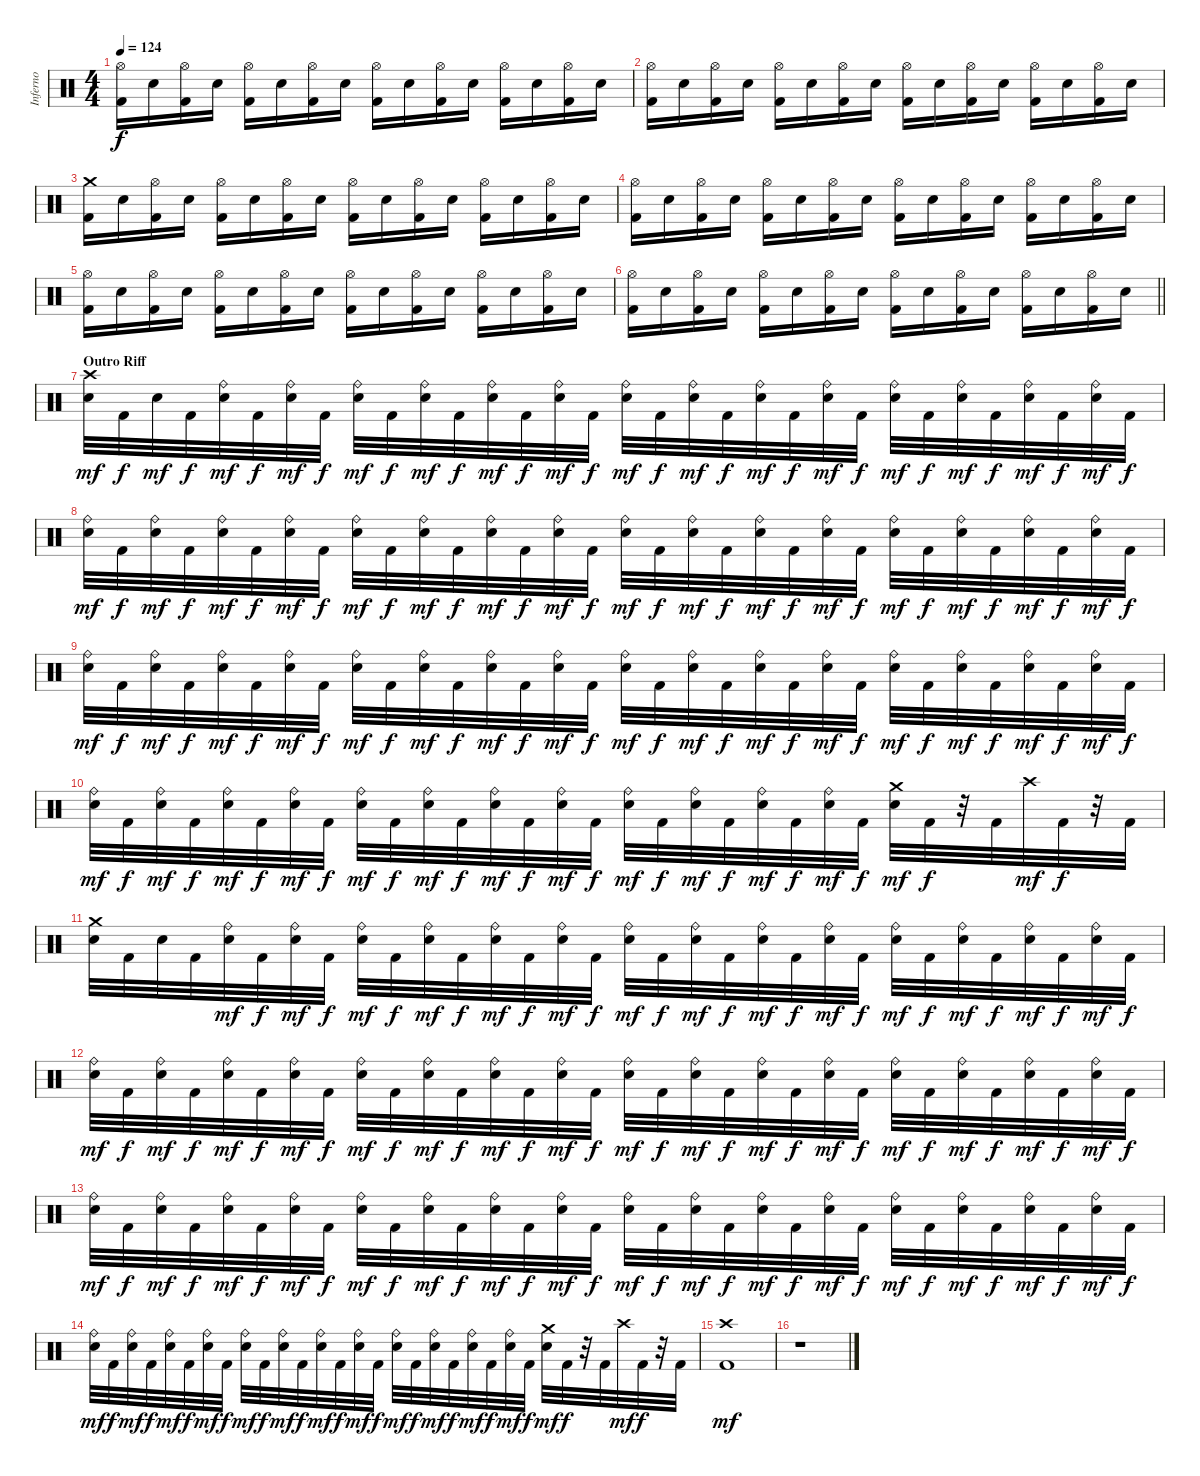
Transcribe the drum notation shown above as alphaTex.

\track ("Inferno" "Inferno") {instrument percussion}
\staff {score}
\articulation defaults
\ts (4 4)
\tempo 124
\clef neutral
\ks c
("Hi-Hat (open)" "Kick (hit) 2").16{dy f} "Snare (hit) 2".16 ("Hi-Hat (open)" "Kick (hit) 2").16 "Snare (hit) 2".16 ("Hi-Hat (open)" "Kick (hit) 2").16 "Snare (hit) 2".16 ("Hi-Hat (open)" "Kick (hit) 2").16 "Snare (hit) 2".16 ("Hi-Hat (open)" "Kick (hit) 2").16 "Snare (hit) 2".16 ("Hi-Hat (open)" "Kick (hit) 2").16 "Snare (hit) 2".16 ("Hi-Hat (open)" "Kick (hit) 2").16 "Snare (hit) 2".16 ("Hi-Hat (open)" "Kick (hit) 2").16 "Snare (hit) 2".16 |
("Hi-Hat (open)" "Kick (hit) 2").16 "Snare (hit) 2".16 ("Hi-Hat (open)" "Kick (hit) 2").16 "Snare (hit) 2".16 ("Hi-Hat (open)" "Kick (hit) 2").16 "Snare (hit) 2".16 ("Hi-Hat (open)" "Kick (hit) 2").16 "Snare (hit) 2".16 ("Hi-Hat (open)" "Kick (hit) 2").16 "Snare (hit) 2".16 ("Hi-Hat (open)" "Kick (hit) 2").16 "Snare (hit) 2".16 ("Hi-Hat (open)" "Kick (hit) 2").16 "Snare (hit) 2".16 ("Hi-Hat (open)" "Kick (hit) 2").16 "Snare (hit) 2".16 |
("Crash medium (hit)" "Kick (hit) 2").16 "Snare (hit) 2".16 ("Hi-Hat (open)" "Kick (hit) 2").16 "Snare (hit) 2".16 ("Hi-Hat (open)" "Kick (hit) 2").16 "Snare (hit) 2".16 ("Hi-Hat (open)" "Kick (hit) 2").16 "Snare (hit) 2".16 ("Hi-Hat (open)" "Kick (hit) 2").16 "Snare (hit) 2".16 ("Hi-Hat (open)" "Kick (hit) 2").16 "Snare (hit) 2".16 ("Hi-Hat (open)" "Kick (hit) 2").16 "Snare (hit) 2".16 ("Hi-Hat (open)" "Kick (hit) 2").16 "Snare (hit) 2".16 |
("Hi-Hat (open)" "Kick (hit) 2").16 "Snare (hit) 2".16 ("Hi-Hat (open)" "Kick (hit) 2").16 "Snare (hit) 2".16 ("Hi-Hat (open)" "Kick (hit) 2").16 "Snare (hit) 2".16 ("Hi-Hat (open)" "Kick (hit) 2").16 "Snare (hit) 2".16 ("Hi-Hat (open)" "Kick (hit) 2").16 "Snare (hit) 2".16 ("Hi-Hat (open)" "Kick (hit) 2").16 "Snare (hit) 2".16 ("Hi-Hat (open)" "Kick (hit) 2").16 "Snare (hit) 2".16 ("Hi-Hat (open)" "Kick (hit) 2").16 "Snare (hit) 2".16 |
("Hi-Hat (open)" "Kick (hit) 2").16 "Snare (hit) 2".16 ("Hi-Hat (open)" "Kick (hit) 2").16 "Snare (hit) 2".16 ("Hi-Hat (open)" "Kick (hit) 2").16 "Snare (hit) 2".16 ("Hi-Hat (open)" "Kick (hit) 2").16 "Snare (hit) 2".16 ("Hi-Hat (open)" "Kick (hit) 2").16 "Snare (hit) 2".16 ("Hi-Hat (open)" "Kick (hit) 2").16 "Snare (hit) 2".16 ("Hi-Hat (open)" "Kick (hit) 2").16 "Snare (hit) 2".16 ("Hi-Hat (open)" "Kick (hit) 2").16 "Snare (hit) 2".16 |
\barLineRight lightlight
("Hi-Hat (open)" "Kick (hit) 2").16 "Snare (hit) 2".16 ("Hi-Hat (open)" "Kick (hit) 2").16 "Snare (hit) 2".16 ("Hi-Hat (open)" "Kick (hit) 2").16 "Snare (hit) 2".16 ("Hi-Hat (open)" "Kick (hit) 2").16 "Snare (hit) 2".16 ("Hi-Hat (open)" "Kick (hit) 2").16 "Snare (hit) 2".16 ("Hi-Hat (open)" "Kick (hit) 2").16 "Snare (hit) 2".16 ("Hi-Hat (open)" "Kick (hit) 2").16 "Snare (hit) 2".16 ("Hi-Hat (open)" "Kick (hit) 2").16 "Snare (hit) 2".16 |
\section ("" "Outro Riff")
("Crash high (hit)" "Snare (hit) 2").32{dy mf} "Kick (hit) 2".32{dy f} "Snare (hit) 2".32{dy mf} "Kick (hit) 2".32{dy f} ("Ride (bell)" "Snare (hit) 2").32{dy mf} "Kick (hit) 2".32{dy f} ("Ride (bell)" "Snare (hit) 2").32{dy mf} "Kick (hit) 2".32{dy f} ("Ride (bell)" "Snare (hit) 2").32{dy mf} "Kick (hit) 2".32{dy f} ("Ride (bell)" "Snare (hit) 2").32{dy mf} "Kick (hit) 2".32{dy f} ("Ride (bell)" "Snare (hit) 2").32{dy mf} "Kick (hit) 2".32{dy f} ("Ride (bell)" "Snare (hit) 2").32{dy mf} "Kick (hit) 2".32{dy f} ("Ride (bell)" "Snare (hit) 2").32{dy mf} "Kick (hit) 2".32{dy f} ("Ride (bell)" "Snare (hit) 2").32{dy mf} "Kick (hit) 2".32{dy f} ("Ride (bell)" "Snare (hit) 2").32{dy mf} "Kick (hit) 2".32{dy f} ("Ride (bell)" "Snare (hit) 2").32{dy mf} "Kick (hit) 2".32{dy f} ("Ride (bell)" "Snare (hit) 2").32{dy mf} "Kick (hit) 2".32{dy f} ("Ride (bell)" "Snare (hit) 2").32{dy mf} "Kick (hit) 2".32{dy f} ("Ride (bell)" "Snare (hit) 2").32{dy mf} "Kick (hit) 2".32{dy f} ("Ride (bell)" "Snare (hit) 2").32{dy mf} "Kick (hit) 2".32{dy f} |
("Ride (bell)" "Snare (hit) 2").32{dy mf} "Kick (hit) 2".32{dy f} ("Ride (bell)" "Snare (hit) 2").32{dy mf} "Kick (hit) 2".32{dy f} ("Ride (bell)" "Snare (hit) 2").32{dy mf} "Kick (hit) 2".32{dy f} ("Ride (bell)" "Snare (hit) 2").32{dy mf} "Kick (hit) 2".32{dy f} ("Ride (bell)" "Snare (hit) 2").32{dy mf} "Kick (hit) 2".32{dy f} ("Ride (bell)" "Snare (hit) 2").32{dy mf} "Kick (hit) 2".32{dy f} ("Ride (bell)" "Snare (hit) 2").32{dy mf} "Kick (hit) 2".32{dy f} ("Ride (bell)" "Snare (hit) 2").32{dy mf} "Kick (hit) 2".32{dy f} ("Ride (bell)" "Snare (hit) 2").32{dy mf} "Kick (hit) 2".32{dy f} ("Ride (bell)" "Snare (hit) 2").32{dy mf} "Kick (hit) 2".32{dy f} ("Ride (bell)" "Snare (hit) 2").32{dy mf} "Kick (hit) 2".32{dy f} ("Ride (bell)" "Snare (hit) 2").32{dy mf} "Kick (hit) 2".32{dy f} ("Ride (bell)" "Snare (hit) 2").32{dy mf} "Kick (hit) 2".32{dy f} ("Ride (bell)" "Snare (hit) 2").32{dy mf} "Kick (hit) 2".32{dy f} ("Ride (bell)" "Snare (hit) 2").32{dy mf} "Kick (hit) 2".32{dy f} ("Ride (bell)" "Snare (hit) 2").32{dy mf} "Kick (hit) 2".32{dy f} |
("Ride (bell)" "Snare (hit) 2").32{dy mf} "Kick (hit) 2".32{dy f} ("Ride (bell)" "Snare (hit) 2").32{dy mf} "Kick (hit) 2".32{dy f} ("Ride (bell)" "Snare (hit) 2").32{dy mf} "Kick (hit) 2".32{dy f} ("Ride (bell)" "Snare (hit) 2").32{dy mf} "Kick (hit) 2".32{dy f} ("Ride (bell)" "Snare (hit) 2").32{dy mf} "Kick (hit) 2".32{dy f} ("Ride (bell)" "Snare (hit) 2").32{dy mf} "Kick (hit) 2".32{dy f} ("Ride (bell)" "Snare (hit) 2").32{dy mf} "Kick (hit) 2".32{dy f} ("Ride (bell)" "Snare (hit) 2").32{dy mf} "Kick (hit) 2".32{dy f} ("Ride (bell)" "Snare (hit) 2").32{dy mf} "Kick (hit) 2".32{dy f} ("Ride (bell)" "Snare (hit) 2").32{dy mf} "Kick (hit) 2".32{dy f} ("Ride (bell)" "Snare (hit) 2").32{dy mf} "Kick (hit) 2".32{dy f} ("Ride (bell)" "Snare (hit) 2").32{dy mf} "Kick (hit) 2".32{dy f} ("Ride (bell)" "Snare (hit) 2").32{dy mf} "Kick (hit) 2".32{dy f} ("Ride (bell)" "Snare (hit) 2").32{dy mf} "Kick (hit) 2".32{dy f} ("Ride (bell)" "Snare (hit) 2").32{dy mf} "Kick (hit) 2".32{dy f} ("Ride (bell)" "Snare (hit) 2").32{dy mf} "Kick (hit) 2".32{dy f} |
("Ride (bell)" "Snare (hit) 2").32{dy mf} "Kick (hit) 2".32{dy f} ("Ride (bell)" "Snare (hit) 2").32{dy mf} "Kick (hit) 2".32{dy f} ("Ride (bell)" "Snare (hit) 2").32{dy mf} "Kick (hit) 2".32{dy f} ("Ride (bell)" "Snare (hit) 2").32{dy mf} "Kick (hit) 2".32{dy f} ("Ride (bell)" "Snare (hit) 2").32{dy mf} "Kick (hit) 2".32{dy f} ("Ride (bell)" "Snare (hit) 2").32{dy mf} "Kick (hit) 2".32{dy f} ("Ride (bell)" "Snare (hit) 2").32{dy mf} "Kick (hit) 2".32{dy f} ("Ride (bell)" "Snare (hit) 2").32{dy mf} "Kick (hit) 2".32{dy f} ("Ride (bell)" "Snare (hit) 2").32{dy mf} "Kick (hit) 2".32{dy f} ("Ride (bell)" "Snare (hit) 2").32{dy mf} "Kick (hit) 2".32{dy f} ("Ride (bell)" "Snare (hit) 2").32{dy mf} "Kick (hit) 2".32{dy f} ("Ride (bell)" "Snare (hit) 2").32{dy mf} "Kick (hit) 2".32{dy f} ("Crash medium (hit)" "Snare (hit) 2").32{dy mf} "Kick (hit) 2".32{dy f} r.32 "Kick (hit) 2".32 "Crash high (hit)".32{dy mf} "Kick (hit) 2".32{dy f} r.32 "Kick (hit) 2".32 |
("Crash medium (hit)" "Snare (hit) 2").32 "Kick (hit) 2".32 "Snare (hit) 2".32 "Kick (hit) 2".32 ("Ride (bell)" "Snare (hit) 2").32{dy mf} "Kick (hit) 2".32{dy f} ("Ride (bell)" "Snare (hit) 2").32{dy mf} "Kick (hit) 2".32{dy f} ("Ride (bell)" "Snare (hit) 2").32{dy mf} "Kick (hit) 2".32{dy f} ("Ride (bell)" "Snare (hit) 2").32{dy mf} "Kick (hit) 2".32{dy f} ("Ride (bell)" "Snare (hit) 2").32{dy mf} "Kick (hit) 2".32{dy f} ("Ride (bell)" "Snare (hit) 2").32{dy mf} "Kick (hit) 2".32{dy f} ("Ride (bell)" "Snare (hit) 2").32{dy mf} "Kick (hit) 2".32{dy f} ("Ride (bell)" "Snare (hit) 2").32{dy mf} "Kick (hit) 2".32{dy f} ("Ride (bell)" "Snare (hit) 2").32{dy mf} "Kick (hit) 2".32{dy f} ("Ride (bell)" "Snare (hit) 2").32{dy mf} "Kick (hit) 2".32{dy f} ("Ride (bell)" "Snare (hit) 2").32{dy mf} "Kick (hit) 2".32{dy f} ("Ride (bell)" "Snare (hit) 2").32{dy mf} "Kick (hit) 2".32{dy f} ("Ride (bell)" "Snare (hit) 2").32{dy mf} "Kick (hit) 2".32{dy f} ("Ride (bell)" "Snare (hit) 2").32{dy mf} "Kick (hit) 2".32{dy f} |
("Ride (bell)" "Snare (hit) 2").32{dy mf} "Kick (hit) 2".32{dy f} ("Ride (bell)" "Snare (hit) 2").32{dy mf} "Kick (hit) 2".32{dy f} ("Ride (bell)" "Snare (hit) 2").32{dy mf} "Kick (hit) 2".32{dy f} ("Ride (bell)" "Snare (hit) 2").32{dy mf} "Kick (hit) 2".32{dy f} ("Ride (bell)" "Snare (hit) 2").32{dy mf} "Kick (hit) 2".32{dy f} ("Ride (bell)" "Snare (hit) 2").32{dy mf} "Kick (hit) 2".32{dy f} ("Ride (bell)" "Snare (hit) 2").32{dy mf} "Kick (hit) 2".32{dy f} ("Ride (bell)" "Snare (hit) 2").32{dy mf} "Kick (hit) 2".32{dy f} ("Ride (bell)" "Snare (hit) 2").32{dy mf} "Kick (hit) 2".32{dy f} ("Ride (bell)" "Snare (hit) 2").32{dy mf} "Kick (hit) 2".32{dy f} ("Ride (bell)" "Snare (hit) 2").32{dy mf} "Kick (hit) 2".32{dy f} ("Ride (bell)" "Snare (hit) 2").32{dy mf} "Kick (hit) 2".32{dy f} ("Ride (bell)" "Snare (hit) 2").32{dy mf} "Kick (hit) 2".32{dy f} ("Ride (bell)" "Snare (hit) 2").32{dy mf} "Kick (hit) 2".32{dy f} ("Ride (bell)" "Snare (hit) 2").32{dy mf} "Kick (hit) 2".32{dy f} ("Ride (bell)" "Snare (hit) 2").32{dy mf} "Kick (hit) 2".32{dy f} |
("Ride (bell)" "Snare (hit) 2").32{dy mf} "Kick (hit) 2".32{dy f} ("Ride (bell)" "Snare (hit) 2").32{dy mf} "Kick (hit) 2".32{dy f} ("Ride (bell)" "Snare (hit) 2").32{dy mf} "Kick (hit) 2".32{dy f} ("Ride (bell)" "Snare (hit) 2").32{dy mf} "Kick (hit) 2".32{dy f} ("Ride (bell)" "Snare (hit) 2").32{dy mf} "Kick (hit) 2".32{dy f} ("Ride (bell)" "Snare (hit) 2").32{dy mf} "Kick (hit) 2".32{dy f} ("Ride (bell)" "Snare (hit) 2").32{dy mf} "Kick (hit) 2".32{dy f} ("Ride (bell)" "Snare (hit) 2").32{dy mf} "Kick (hit) 2".32{dy f} ("Ride (bell)" "Snare (hit) 2").32{dy mf} "Kick (hit) 2".32{dy f} ("Ride (bell)" "Snare (hit) 2").32{dy mf} "Kick (hit) 2".32{dy f} ("Ride (bell)" "Snare (hit) 2").32{dy mf} "Kick (hit) 2".32{dy f} ("Ride (bell)" "Snare (hit) 2").32{dy mf} "Kick (hit) 2".32{dy f} ("Ride (bell)" "Snare (hit) 2").32{dy mf} "Kick (hit) 2".32{dy f} ("Ride (bell)" "Snare (hit) 2").32{dy mf} "Kick (hit) 2".32{dy f} ("Ride (bell)" "Snare (hit) 2").32{dy mf} "Kick (hit) 2".32{dy f} ("Ride (bell)" "Snare (hit) 2").32{dy mf} "Kick (hit) 2".32{dy f} |
("Ride (bell)" "Snare (hit) 2").32{dy mf} "Kick (hit) 2".32{dy f} ("Ride (bell)" "Snare (hit) 2").32{dy mf} "Kick (hit) 2".32{dy f} ("Ride (bell)" "Snare (hit) 2").32{dy mf} "Kick (hit) 2".32{dy f} ("Ride (bell)" "Snare (hit) 2").32{dy mf} "Kick (hit) 2".32{dy f} ("Ride (bell)" "Snare (hit) 2").32{dy mf} "Kick (hit) 2".32{dy f} ("Ride (bell)" "Snare (hit) 2").32{dy mf} "Kick (hit) 2".32{dy f} ("Ride (bell)" "Snare (hit) 2").32{dy mf} "Kick (hit) 2".32{dy f} ("Ride (bell)" "Snare (hit) 2").32{dy mf} "Kick (hit) 2".32{dy f} ("Ride (bell)" "Snare (hit) 2").32{dy mf} "Kick (hit) 2".32{dy f} ("Ride (bell)" "Snare (hit) 2").32{dy mf} "Kick (hit) 2".32{dy f} ("Ride (bell)" "Snare (hit) 2").32{dy mf} "Kick (hit) 2".32{dy f} ("Ride (bell)" "Snare (hit) 2").32{dy mf} "Kick (hit) 2".32{dy f} ("Crash medium (hit)" "Snare (hit) 2").32{dy mf} "Kick (hit) 2".32{dy f} r.32 "Kick (hit) 2".32 "Crash high (hit)".32{dy mf} "Kick (hit) 2".32{dy f} r.32 "Kick (hit) 2".32 |
("Crash high (hit)" "Kick (hit) 2").1{dy mf} |
r.1
